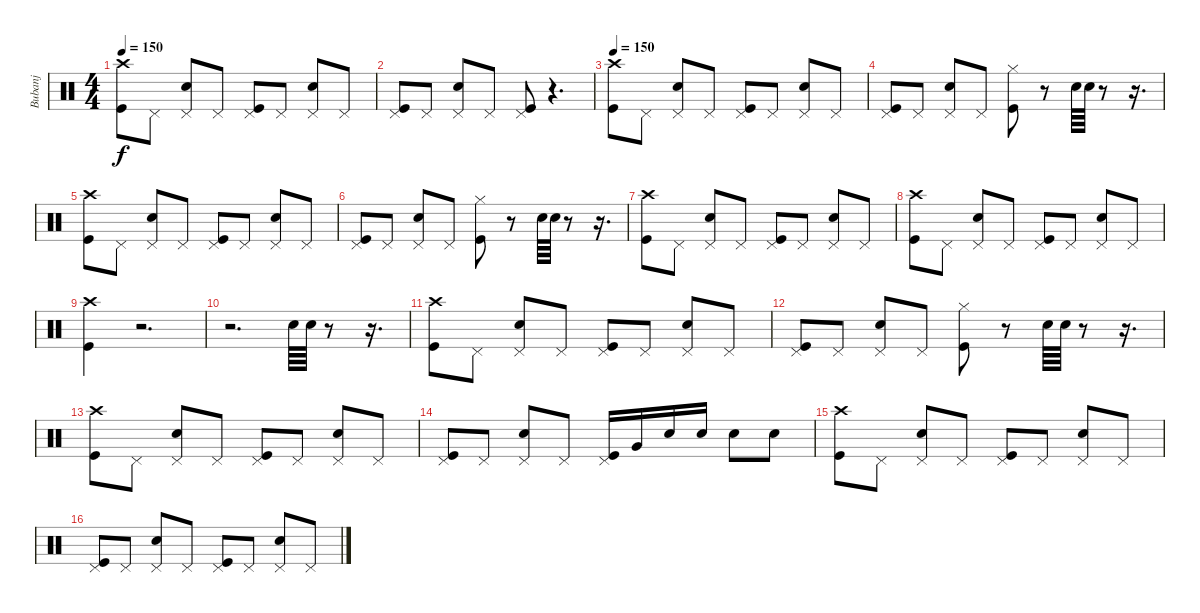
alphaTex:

\track ("Bubanj" "Bubanj") {instrument percussion}
\staff {score}
\articulation defaults
\ts (4 4)
\tempo 150
\clef neutral
\ks c
("Crash high (hit)" "Kick (hit)").8{dy f} "Pedal Hi-Hat (hit)".8 ("Pedal Hi-Hat (hit)" "Electric Snare (hit)").8 "Pedal Hi-Hat (hit)".8 ("Pedal Hi-Hat (hit)" "Kick (hit)").8 "Pedal Hi-Hat (hit)".8 ("Pedal Hi-Hat (hit)" "Electric Snare (hit)").8 "Pedal Hi-Hat (hit)".8 |
("Pedal Hi-Hat (hit)" "Kick (hit)").8 "Pedal Hi-Hat (hit)".8 ("Pedal Hi-Hat (hit)" "Electric Snare (hit)").8 "Pedal Hi-Hat (hit)".8 ("Pedal Hi-Hat (hit)" "Kick (hit)").8 r.4{d} |
\tempo 150
("Crash high (hit)" "Kick (hit)").8 "Pedal Hi-Hat (hit)".8 ("Pedal Hi-Hat (hit)" "Electric Snare (hit)").8 "Pedal Hi-Hat (hit)".8 ("Pedal Hi-Hat (hit)" "Kick (hit)").8 "Pedal Hi-Hat (hit)".8 ("Pedal Hi-Hat (hit)" "Electric Snare (hit)").8 "Pedal Hi-Hat (hit)".8 |
("Pedal Hi-Hat (hit)" "Kick (hit)").8 "Pedal Hi-Hat (hit)".8 ("Pedal Hi-Hat (hit)" "Electric Snare (hit)").8 "Pedal Hi-Hat (hit)".8 ("Hi-Hat (closed)" "Kick (hit)").8 r.8 "Electric Snare (hit)".64 "Electric Snare (hit)".64 r.8 r.16{d} |
("Crash high (hit)" "Kick (hit)").8 "Pedal Hi-Hat (hit)".8 ("Pedal Hi-Hat (hit)" "Electric Snare (hit)").8 "Pedal Hi-Hat (hit)".8 ("Pedal Hi-Hat (hit)" "Kick (hit)").8 "Pedal Hi-Hat (hit)".8 ("Pedal Hi-Hat (hit)" "Electric Snare (hit)").8 "Pedal Hi-Hat (hit)".8 |
("Pedal Hi-Hat (hit)" "Kick (hit)").8 "Pedal Hi-Hat (hit)".8 ("Pedal Hi-Hat (hit)" "Electric Snare (hit)").8 "Pedal Hi-Hat (hit)".8 ("Hi-Hat (closed)" "Kick (hit)").8 r.8 "Electric Snare (hit)".64 "Electric Snare (hit)".64 r.8 r.16{d} |
("Crash high (hit)" "Kick (hit)").8 "Pedal Hi-Hat (hit)".8 ("Pedal Hi-Hat (hit)" "Electric Snare (hit)").8 "Pedal Hi-Hat (hit)".8 ("Pedal Hi-Hat (hit)" "Kick (hit)").8 "Pedal Hi-Hat (hit)".8 ("Pedal Hi-Hat (hit)" "Electric Snare (hit)").8 "Pedal Hi-Hat (hit)".8 |
("Crash high (hit)" "Kick (hit)").8 "Pedal Hi-Hat (hit)".8 ("Pedal Hi-Hat (hit)" "Electric Snare (hit)").8 "Pedal Hi-Hat (hit)".8 ("Pedal Hi-Hat (hit)" "Kick (hit)").8 "Pedal Hi-Hat (hit)".8 ("Pedal Hi-Hat (hit)" "Electric Snare (hit)").8 "Pedal Hi-Hat (hit)".8 |
("Crash high (hit)" "Kick (hit)").4 r.2{d} |
r.2{d} "Electric Snare (hit)".64 "Electric Snare (hit)".64 r.8 r.16{d} |
("Crash high (hit)" "Kick (hit)").8 "Pedal Hi-Hat (hit)".8 ("Pedal Hi-Hat (hit)" "Electric Snare (hit)").8 "Pedal Hi-Hat (hit)".8 ("Pedal Hi-Hat (hit)" "Kick (hit)").8 "Pedal Hi-Hat (hit)".8 ("Pedal Hi-Hat (hit)" "Electric Snare (hit)").8 "Pedal Hi-Hat (hit)".8 |
("Pedal Hi-Hat (hit)" "Kick (hit)").8 "Pedal Hi-Hat (hit)".8 ("Pedal Hi-Hat (hit)" "Electric Snare (hit)").8 "Pedal Hi-Hat (hit)".8 ("Hi-Hat (closed)" "Kick (hit)").8 r.8 "Electric Snare (hit)".64 "Electric Snare (hit)".64 r.8 r.16{d} |
("Crash high (hit)" "Kick (hit)").8 "Pedal Hi-Hat (hit)".8 ("Pedal Hi-Hat (hit)" "Electric Snare (hit)").8 "Pedal Hi-Hat (hit)".8 ("Pedal Hi-Hat (hit)" "Kick (hit)").8 "Pedal Hi-Hat (hit)".8 ("Pedal Hi-Hat (hit)" "Electric Snare (hit)").8 "Pedal Hi-Hat (hit)".8 |
("Pedal Hi-Hat (hit)" "Kick (hit)").8 "Pedal Hi-Hat (hit)".8 ("Pedal Hi-Hat (hit)" "Electric Snare (hit)").8 "Pedal Hi-Hat (hit)".8 ("Pedal Hi-Hat (hit)" "Kick (hit)").16 "Very Low Tom (hit)".16 "Electric Snare (hit)".16 "Electric Snare (hit)".16 "Electric Snare (hit)".8 "Electric Snare (hit)".8 |
("Crash high (hit)" "Kick (hit)").8 "Pedal Hi-Hat (hit)".8 ("Pedal Hi-Hat (hit)" "Electric Snare (hit)").8 "Pedal Hi-Hat (hit)".8 ("Pedal Hi-Hat (hit)" "Kick (hit)").8 "Pedal Hi-Hat (hit)".8 ("Pedal Hi-Hat (hit)" "Electric Snare (hit)").8 "Pedal Hi-Hat (hit)".8 |
("Pedal Hi-Hat (hit)" "Kick (hit)").8 "Pedal Hi-Hat (hit)".8 ("Pedal Hi-Hat (hit)" "Electric Snare (hit)").8 "Pedal Hi-Hat (hit)".8 ("Pedal Hi-Hat (hit)" "Kick (hit)").8 "Pedal Hi-Hat (hit)".8 ("Pedal Hi-Hat (hit)" "Electric Snare (hit)").8 "Pedal Hi-Hat (hit)".8
